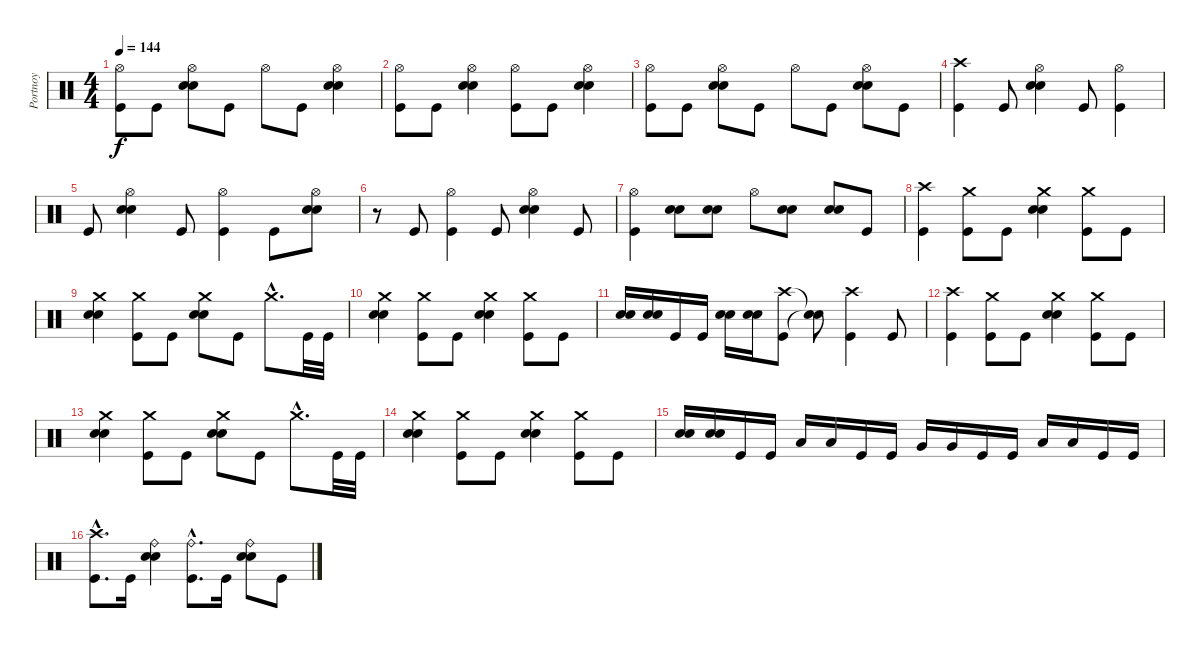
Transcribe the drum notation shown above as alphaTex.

\track ("Portnoy" "Portnoy") {instrument percussion}
\staff {score}
\articulation defaults
\ts (4 4)
\tempo 144
\clef neutral
\ks c
("Hi-Hat (open)" "Kick (hit)").8{dy f} "Kick (hit)".8 ("Hi-Hat (open)" "Snare (hit) 2" "Electric Snare (hit)").8 "Kick (hit)".8 "Hi-Hat (open)".8 "Kick (hit)".8 ("Hi-Hat (open)" "Snare (hit) 2" "Electric Snare (hit)").4 |
("Hi-Hat (open)" "Kick (hit)").8 "Kick (hit)".8 ("Hi-Hat (open)" "Snare (hit) 2" "Electric Snare (hit)").4 ("Hi-Hat (open)" "Kick (hit)").8 "Kick (hit)".8 ("Hi-Hat (open)" "Snare (hit) 2" "Electric Snare (hit)").4 |
("Hi-Hat (open)" "Kick (hit)").8 "Kick (hit)".8 ("Hi-Hat (open)" "Snare (hit) 2" "Electric Snare (hit)").8 "Kick (hit)".8 "Hi-Hat (open)".8 "Kick (hit)".8 ("Hi-Hat (open)" "Snare (hit) 2" "Electric Snare (hit)").8 "Kick (hit)".8 |
("Crash high (hit)" "Kick (hit)").4 "Kick (hit)".8 ("Hi-Hat (open)" "Snare (hit) 2" "Electric Snare (hit)").4 "Kick (hit)".8 ("Hi-Hat (open)" "Kick (hit)").4 |
"Kick (hit)".8 ("Hi-Hat (open)" "Snare (hit) 2" "Electric Snare (hit)").4 "Kick (hit)".8 ("Hi-Hat (open)" "Kick (hit)").4 "Kick (hit)".8 ("Hi-Hat (open)" "Snare (hit) 2" "Electric Snare (hit)").8 |
r.8 "Kick (hit)".8 ("Hi-Hat (open)" "Kick (hit)").4 "Kick (hit)".8 ("Hi-Hat (open)" "Snare (hit) 2" "Electric Snare (hit)").4 "Kick (hit)".8 |
("Hi-Hat (open)" "Kick (hit)").4 ("Snare (hit) 2" "Electric Snare (hit)").8 ("Snare (hit) 2" "Electric Snare (hit)").8 "Hi-Hat (open)".8 ("Snare (hit) 2" "Electric Snare (hit)").8 ("Snare (hit) 2" "Electric Snare (hit)").8 "Kick (hit)".8 |
("Crash high (hit)" "Kick (hit)").4 ("Crash medium (hit)" "Kick (hit)").8 "Kick (hit)".8 ("Crash medium (hit)" "Snare (hit) 2" "Electric Snare (hit)").4 ("Crash medium (hit)" "Kick (hit)").8 "Kick (hit)".8 |
("Crash medium (hit)" "Snare (hit) 2" "Electric Snare (hit)").4 ("Crash medium (hit)" "Kick (hit)").8 "Kick (hit)".8 ("Crash medium (hit)" "Snare (hit) 2" "Electric Snare (hit)").8 "Kick (hit)".8 "Crash medium (hit)"{hac}.8{d} "Kick (hit)".32 "Kick (hit)".32 |
("Crash medium (hit)" "Snare (hit) 2" "Electric Snare (hit)").4 ("Crash medium (hit)" "Kick (hit)").8 "Kick (hit)".8 ("Crash medium (hit)" "Snare (hit) 2" "Electric Snare (hit)").4 ("Crash medium (hit)" "Kick (hit)").8 "Kick (hit)".8 |
("Snare (hit) 2" "Electric Snare (hit)").16 ("Snare (hit) 2" "Electric Snare (hit)").16 "Kick (hit)".16 "Kick (hit)".16 ("Snare (hit) 2" "Electric Snare (hit)").16 ("Snare (hit) 2" "Electric Snare (hit)").16 ("Crash high (hit)" "Kick (hit)").8 ("Snare (hit)"{t} "Snare (hit)"{t}).8 ("Crash high (hit)" "Kick (hit)").4 "Kick (hit)".8 |
("Crash high (hit)" "Kick (hit)").4 ("Crash medium (hit)" "Kick (hit)").8 "Kick (hit)".8 ("Crash medium (hit)" "Snare (hit) 2" "Electric Snare (hit)").4 ("Crash medium (hit)" "Kick (hit)").8 "Kick (hit)".8 |
("Crash medium (hit)" "Snare (hit) 2" "Electric Snare (hit)").4 ("Crash medium (hit)" "Kick (hit)").8 "Kick (hit)".8 ("Crash medium (hit)" "Snare (hit) 2" "Electric Snare (hit)").8 "Kick (hit)".8 "Crash medium (hit)"{hac}.8{d} "Kick (hit)".32 "Kick (hit)".32 |
("Crash medium (hit)" "Snare (hit) 2" "Electric Snare (hit)").4 ("Crash medium (hit)" "Kick (hit)").8 "Kick (hit)".8 ("Crash medium (hit)" "Snare (hit) 2" "Electric Snare (hit)").4 ("Crash medium (hit)" "Kick (hit)").8 "Kick (hit)".8 |
("Snare (hit) 2" "Electric Snare (hit)").16 ("Snare (hit) 2" "Electric Snare (hit)").16 "Kick (hit)".16 "Kick (hit)".16 "Low Tom (hit)".16 "Low Tom (hit)".16 "Kick (hit)".16 "Kick (hit)".16 "Very Low Tom (hit)".16 "Very Low Tom (hit)".16 "Kick (hit)".16 "Kick (hit)".16 "Low Floor Tom (hit)".16 "Low Floor Tom (hit)".16 "Kick (hit)".16 "Kick (hit)".16 |
("Crash high (hit)"{hac} "Kick (hit)"{hac}).8{d} "Kick (hit)".16 ("Ride (bell)" "Snare (hit) 2" "Electric Snare (hit)").4 ("Ride (bell)"{hac} "Kick (hit)"{hac}).8{d} "Kick (hit)".16 ("Ride (bell)" "Snare (hit) 2" "Electric Snare (hit)").8 "Kick (hit)".8
